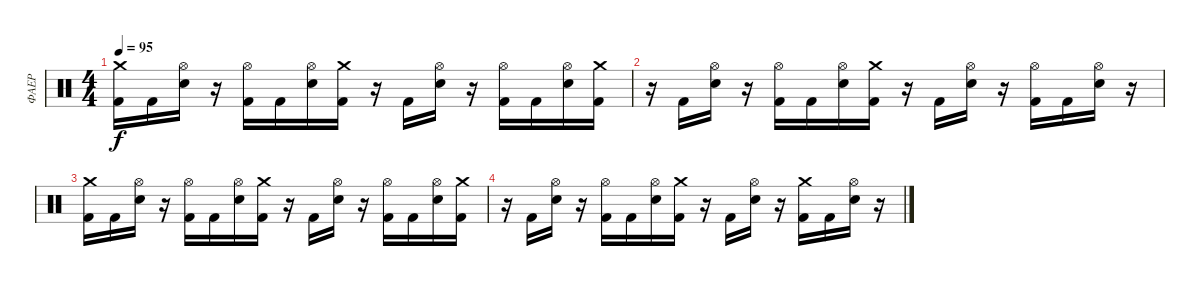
\track ("ФАЕР" "ФАЕР") {instrument percussion}
\staff {score}
\articulation defaults
\ts (4 4)
\tempo 95
\clef neutral
\ks c
("Crash medium (hit)" "Kick (hit) 2").16{dy f} "Kick (hit) 2".16 ("Hi-Hat (open)" "Electric Snare (hit)").16 r.16 ("Hi-Hat (open)" "Kick (hit) 2").16 "Kick (hit) 2".16 ("Hi-Hat (open)" "Electric Snare (hit)").16 ("Crash medium (hit)" "Kick (hit) 2").16 r.16 "Kick (hit) 2".16 ("Hi-Hat (open)" "Electric Snare (hit)").16 r.16 ("Hi-Hat (open)" "Kick (hit) 2").16 "Kick (hit) 2".16 ("Hi-Hat (open)" "Electric Snare (hit)").16 ("Crash medium (hit)" "Kick (hit) 2").16 |
r.16 "Kick (hit) 2".16 ("Hi-Hat (open)" "Electric Snare (hit)").16 r.16 ("Hi-Hat (open)" "Kick (hit) 2").16 "Kick (hit) 2".16 ("Hi-Hat (open)" "Electric Snare (hit)").16 ("Crash medium (hit)" "Kick (hit) 2").16 r.16 "Kick (hit) 2".16 ("Hi-Hat (open)" "Electric Snare (hit)").16 r.16 ("Hi-Hat (open)" "Kick (hit) 2").16 "Kick (hit) 2".16 ("Hi-Hat (open)" "Electric Snare (hit)").16 r.16 |
("Crash medium (hit)" "Kick (hit) 2").16 "Kick (hit) 2".16 ("Hi-Hat (open)" "Electric Snare (hit)").16 r.16 ("Hi-Hat (open)" "Kick (hit) 2").16 "Kick (hit) 2".16 ("Hi-Hat (open)" "Electric Snare (hit)").16 ("Crash medium (hit)" "Kick (hit) 2").16 r.16 "Kick (hit) 2".16 ("Hi-Hat (open)" "Electric Snare (hit)").16 r.16 ("Hi-Hat (open)" "Kick (hit) 2").16 "Kick (hit) 2".16 ("Hi-Hat (open)" "Electric Snare (hit)").16 ("Crash medium (hit)" "Kick (hit) 2").16 |
r.16 "Kick (hit) 2".16 ("Hi-Hat (open)" "Electric Snare (hit)").16 r.16 ("Hi-Hat (open)" "Kick (hit) 2").16 "Kick (hit) 2".16 ("Hi-Hat (open)" "Electric Snare (hit)").16 ("Crash medium (hit)" "Kick (hit) 2").16 r.16 "Kick (hit) 2".16 ("Hi-Hat (open)" "Electric Snare (hit)").16 r.16 ("Crash medium (hit)" "Kick (hit) 2").16 "Kick (hit) 2".16 ("Hi-Hat (open)" "Electric Snare (hit)").16 r.16
